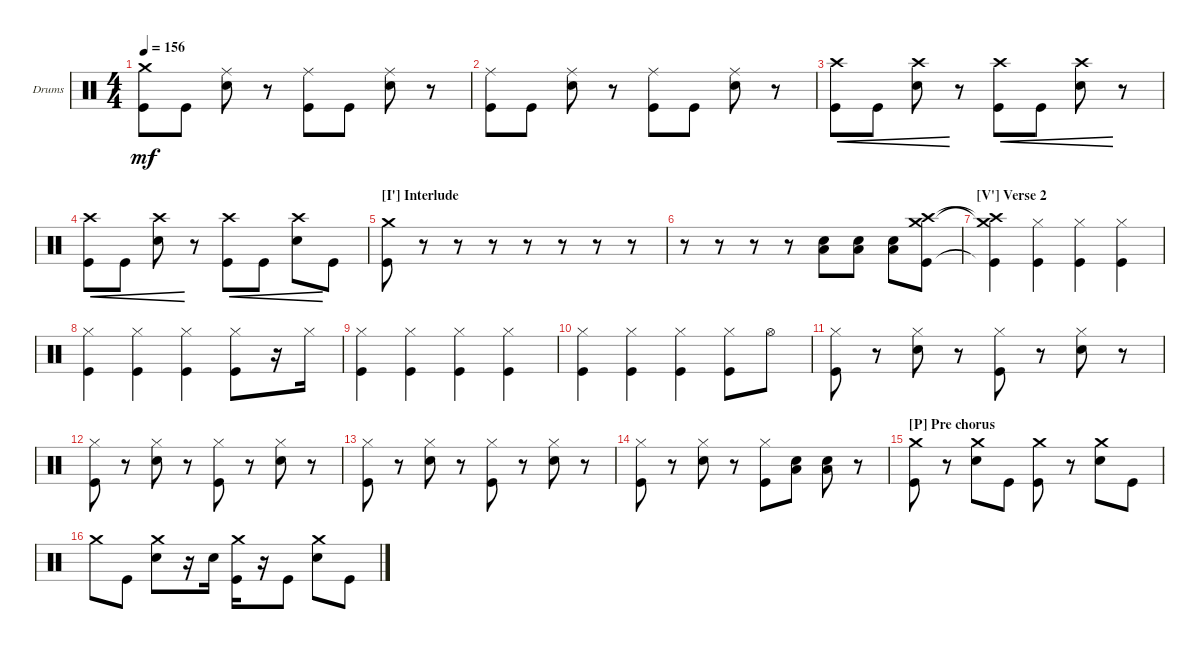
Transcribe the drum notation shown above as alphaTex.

\defaultSystemsLayout 4
\bracketExtendMode groupsimilarinstruments
\firstSystemTrackNameOrientation horizontal
\otherSystemsTrackNameOrientation horizontal
\track ("Drumkit" "Drums") {instrument percussion}
\staff {score}
\articulation defaults
\ts (4 4)
\tempo 156
\clef neutral
\ks c
("Kick (hit)" "Crash medium (hit)").8{dy mf} "Kick (hit)".8 ("Snare (hit) 2" "Ride (middle)").8 r.8 ("Kick (hit)" "Ride (middle)").8 "Kick (hit)".8 ("Snare (hit) 2" "Ride (middle)").8 r.8 |
("Kick (hit)" "Ride (middle)").8 "Kick (hit)".8 ("Snare (hit) 2" "Ride (middle)").8 r.8 ("Kick (hit)" "Ride (middle)").8 "Kick (hit)".8 ("Snare (hit) 2" "Ride (middle)").8 r.8 |
("Kick (hit)" "Crash high (hit)").8{cre} "Kick (hit)".8{cre} ("Snare (hit) 2" "Crash high (hit)").8{cre} r.8 ("Kick (hit)" "Crash high (hit)").8{cre} "Kick (hit)".8{cre} ("Snare (hit) 2" "Crash high (hit)").8{cre} r.8 |
("Kick (hit)" "Crash high (hit)").8{cre} "Kick (hit)".8{cre} ("Snare (hit) 2" "Crash high (hit)").8{cre} r.8 ("Kick (hit)" "Crash high (hit)").8{cre} "Kick (hit)".8{cre} ("Snare (hit) 2" "Crash high (hit)").8{cre} "Kick (hit)".8 |
\section ("I'" "Interlude")
("Kick (hit)" "Crash medium (hit)").8 r.8 r.8 r.8 r.8 r.8 r.8 r.8 |
r.8 r.8 r.8 r.8 ("Low Tom (hit)" "Snare (hit) 2").8 ("Snare (hit) 2" "Low Tom (hit)").8 ("Snare (hit) 2" "Low Tom (hit)").8 ("Kick (hit)" "Crash medium (hit)" "Crash high (hit)").8 |
\section ("V'" "Verse 2")
("Kick (hit)"{t} "Crash high (hit)"{t} "Crash medium (hit)"{t}).4 ("Kick (hit)" "Hi-Hat (closed)").4 ("Kick (hit)" "Hi-Hat (closed)").4 ("Kick (hit)" "Hi-Hat (closed)").4 |
("Kick (hit)" "Hi-Hat (closed)").4 ("Kick (hit)" "Hi-Hat (closed)").4 ("Kick (hit)" "Hi-Hat (closed)").4 ("Kick (hit)" "Hi-Hat (closed)").8 r.16 "Hi-Hat (closed)".16 |
("Kick (hit)" "Hi-Hat (closed)").4 ("Kick (hit)" "Hi-Hat (closed)").4 ("Kick (hit)" "Hi-Hat (closed)").4 ("Kick (hit)" "Hi-Hat (closed)").4 |
("Kick (hit)" "Hi-Hat (closed)").4 ("Kick (hit)" "Hi-Hat (closed)").4 ("Kick (hit)" "Hi-Hat (closed)").4 ("Kick (hit)" "Hi-Hat (closed)").8 "Hi-Hat (open)".8 |
("Kick (hit)" "Hi-Hat (closed)").8 r.8 ("Snare (hit) 2" "Hi-Hat (closed)").8 r.8 ("Kick (hit)" "Hi-Hat (closed)").8 r.8 ("Snare (hit) 2" "Hi-Hat (closed)").8 r.8 |
("Kick (hit)" "Hi-Hat (closed)").8 r.8 ("Snare (hit) 2" "Hi-Hat (closed)").8 r.8 ("Kick (hit)" "Hi-Hat (closed)").8 r.8 ("Snare (hit) 2" "Hi-Hat (closed)").8 r.8 |
("Kick (hit)" "Hi-Hat (closed)").8 r.8 ("Snare (hit) 2" "Hi-Hat (closed)").8 r.8 ("Kick (hit)" "Hi-Hat (closed)").8 r.8 ("Snare (hit) 2" "Hi-Hat (closed)").8 r.8 |
("Kick (hit)" "Hi-Hat (closed)").8 r.8 ("Snare (hit) 2" "Hi-Hat (closed)").8 r.8 ("Kick (hit)" "Hi-Hat (closed)").8 ("Snare (hit) 2" "Low Tom (hit)").8 ("Snare (hit) 2" "Low Tom (hit)").8 r.8 |
\section ("P" "Pre chorus")
("Kick (hit)" "Crash medium (hit)").8 r.8 ("Snare (hit) 2" "Crash medium (hit)").8 "Kick (hit)".8 ("Kick (hit)" "Crash medium (hit)").8 r.8 ("Snare (hit) 2" "Crash medium (hit)").8 "Kick (hit)".8 |
"Crash medium (hit)".8 "Kick (hit)".8 ("Snare (hit) 2" "Crash medium (hit)").8 r.16 "Snare (hit) 2".16 ("Kick (hit)" "Crash medium (hit)").16 r.16 "Kick (hit)".8 ("Snare (hit) 2" "Crash medium (hit)").8 "Kick (hit)".8
